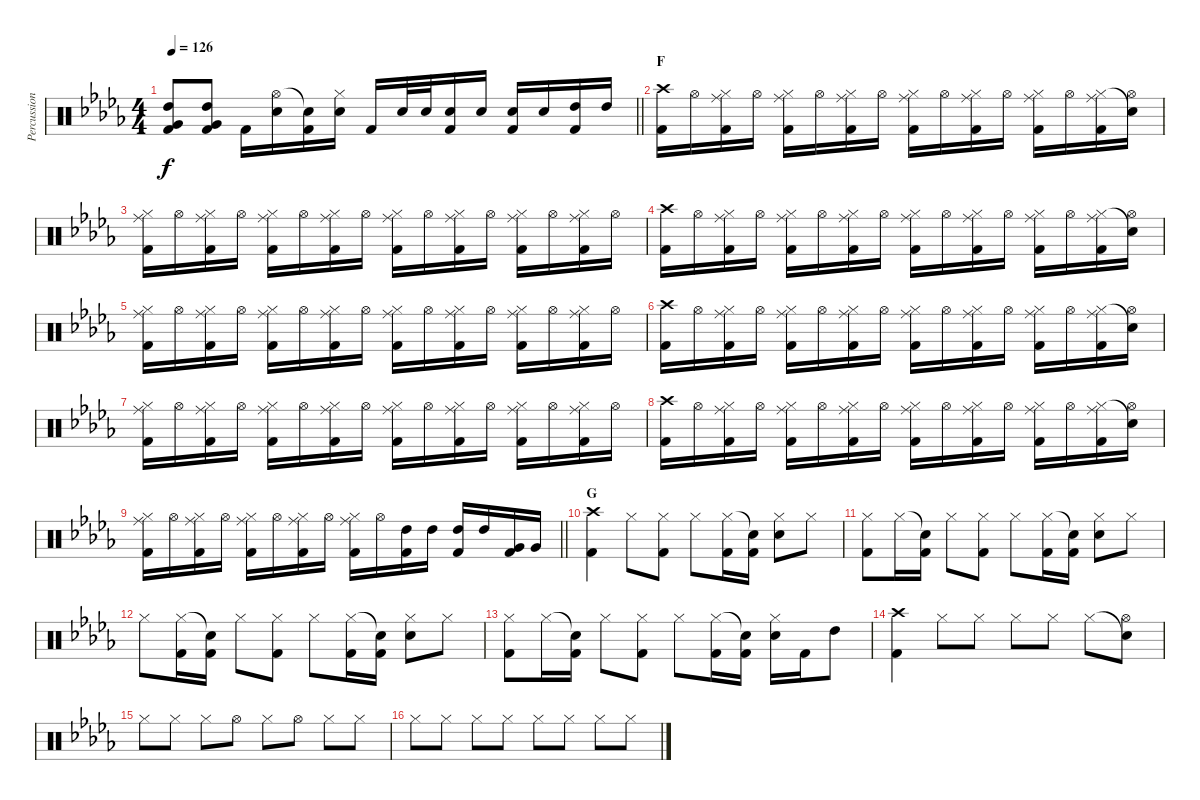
\track ("Percussion" "Percussion") {instrument percussion}
\staff {score}
\articulation defaults
\ts (4 4)
\tempo 126
\clef neutral
\barLineRight lightlight
\ks db
("High Tom (hit)" "Very Low Tom (hit)" "Kick (hit) 2").8{dy f} ("High Tom (hit)" "Very Low Tom (hit)" "Kick (hit) 2").8 "Kick (hit) 2".16 ("Hi-Hat (open)" "Electric Snare (hit)").16 ("Snare (hit)"{t} "Kick (hit) 2").16 ("Hi-Hat (closed)" "Electric Snare (hit)").16 "Kick (hit) 2".16 "Electric Snare (hit)".32 "Electric Snare (hit)".32 ("Electric Snare (hit)" "Kick (hit) 2").16 "Electric Snare (hit)".16 ("Electric Snare (hit)" "Kick (hit) 2").16 "Electric Snare (hit)".16 ("High Tom (hit)" "Kick (hit) 2").16 "High Tom (hit)".16 |
\section ("" "F")
("Crash high (hit)" "Kick (hit) 2").16 "Hi-Hat (open)".16 ("Hi-Hat (closed)" "Ride (middle)" "Kick (hit) 2").16 "Hi-Hat (open)".16 ("Hi-Hat (closed)" "Kick (hit) 2" "Ride (middle)").16 "Hi-Hat (open)".16 ("Hi-Hat (closed)" "Kick (hit) 2" "Ride (middle)").16 "Hi-Hat (open)".16 ("Hi-Hat (closed)" "Ride (middle)" "Kick (hit) 2").16 "Hi-Hat (open)".16 ("Hi-Hat (closed)" "Ride (middle)" "Kick (hit) 2").16 "Hi-Hat (open)".16 ("Hi-Hat (closed)" "Ride (middle)" "Kick (hit) 2").16 "Hi-Hat (open)".16 ("Hi-Hat (closed)" "Ride (middle)" "Kick (hit) 2").16 ("Snare (hit)"{t} "Hi-Hat (open)").16 |
("Hi-Hat (closed)" "Ride (middle)" "Kick (hit) 2").16 "Hi-Hat (open)".16 ("Hi-Hat (closed)" "Ride (middle)" "Kick (hit) 2").16 "Hi-Hat (open)".16 ("Hi-Hat (closed)" "Kick (hit) 2" "Ride (middle)").16 "Hi-Hat (open)".16 ("Hi-Hat (closed)" "Kick (hit) 2" "Ride (middle)").16 "Hi-Hat (open)".16 ("Hi-Hat (closed)" "Ride (middle)" "Kick (hit) 2").16 "Hi-Hat (open)".16 ("Hi-Hat (closed)" "Ride (middle)" "Kick (hit) 2").16 "Hi-Hat (open)".16 ("Hi-Hat (closed)" "Ride (middle)" "Kick (hit) 2").16 "Hi-Hat (open)".16 ("Hi-Hat (closed)" "Ride (middle)" "Kick (hit) 2").16 "Hi-Hat (open)".16 |
("Crash high (hit)" "Kick (hit) 2").16 "Hi-Hat (open)".16 ("Hi-Hat (closed)" "Ride (middle)" "Kick (hit) 2").16 "Hi-Hat (open)".16 ("Hi-Hat (closed)" "Kick (hit) 2" "Ride (middle)").16 "Hi-Hat (open)".16 ("Hi-Hat (closed)" "Kick (hit) 2" "Ride (middle)").16 "Hi-Hat (open)".16 ("Hi-Hat (closed)" "Ride (middle)" "Kick (hit) 2").16 "Hi-Hat (open)".16 ("Hi-Hat (closed)" "Ride (middle)" "Kick (hit) 2").16 "Hi-Hat (open)".16 ("Hi-Hat (closed)" "Ride (middle)" "Kick (hit) 2").16 "Hi-Hat (open)".16 ("Hi-Hat (closed)" "Ride (middle)" "Kick (hit) 2").16 ("Snare (hit)"{t} "Hi-Hat (open)").16 |
("Hi-Hat (closed)" "Ride (middle)" "Kick (hit) 2").16 "Hi-Hat (open)".16 ("Hi-Hat (closed)" "Ride (middle)" "Kick (hit) 2").16 "Hi-Hat (open)".16 ("Hi-Hat (closed)" "Kick (hit) 2" "Ride (middle)").16 "Hi-Hat (open)".16 ("Hi-Hat (closed)" "Kick (hit) 2" "Ride (middle)").16 "Hi-Hat (open)".16 ("Hi-Hat (closed)" "Ride (middle)" "Kick (hit) 2").16 "Hi-Hat (open)".16 ("Hi-Hat (closed)" "Ride (middle)" "Kick (hit) 2").16 "Hi-Hat (open)".16 ("Hi-Hat (closed)" "Ride (middle)" "Kick (hit) 2").16 "Hi-Hat (open)".16 ("Hi-Hat (closed)" "Ride (middle)" "Kick (hit) 2").16 "Hi-Hat (open)".16 |
("Crash high (hit)" "Kick (hit) 2").16 "Hi-Hat (open)".16 ("Hi-Hat (closed)" "Ride (middle)" "Kick (hit) 2").16 "Hi-Hat (open)".16 ("Hi-Hat (closed)" "Kick (hit) 2" "Ride (middle)").16 "Hi-Hat (open)".16 ("Hi-Hat (closed)" "Kick (hit) 2" "Ride (middle)").16 "Hi-Hat (open)".16 ("Hi-Hat (closed)" "Ride (middle)" "Kick (hit) 2").16 "Hi-Hat (open)".16 ("Hi-Hat (closed)" "Ride (middle)" "Kick (hit) 2").16 "Hi-Hat (open)".16 ("Hi-Hat (closed)" "Ride (middle)" "Kick (hit) 2").16 "Hi-Hat (open)".16 ("Hi-Hat (closed)" "Ride (middle)" "Kick (hit) 2").16 ("Snare (hit)"{t} "Hi-Hat (open)").16 |
("Hi-Hat (closed)" "Ride (middle)" "Kick (hit) 2").16 "Hi-Hat (open)".16 ("Hi-Hat (closed)" "Ride (middle)" "Kick (hit) 2").16 "Hi-Hat (open)".16 ("Hi-Hat (closed)" "Kick (hit) 2" "Ride (middle)").16 "Hi-Hat (open)".16 ("Hi-Hat (closed)" "Kick (hit) 2" "Ride (middle)").16 "Hi-Hat (open)".16 ("Hi-Hat (closed)" "Ride (middle)" "Kick (hit) 2").16 "Hi-Hat (open)".16 ("Hi-Hat (closed)" "Ride (middle)" "Kick (hit) 2").16 "Hi-Hat (open)".16 ("Hi-Hat (closed)" "Ride (middle)" "Kick (hit) 2").16 "Hi-Hat (open)".16 ("Hi-Hat (closed)" "Ride (middle)" "Kick (hit) 2").16 "Hi-Hat (open)".16 |
("Crash high (hit)" "Kick (hit) 2").16 "Hi-Hat (open)".16 ("Hi-Hat (closed)" "Ride (middle)" "Kick (hit) 2").16 "Hi-Hat (open)".16 ("Hi-Hat (closed)" "Kick (hit) 2" "Ride (middle)").16 "Hi-Hat (open)".16 ("Hi-Hat (closed)" "Kick (hit) 2" "Ride (middle)").16 "Hi-Hat (open)".16 ("Hi-Hat (closed)" "Ride (middle)" "Kick (hit) 2").16 "Hi-Hat (open)".16 ("Hi-Hat (closed)" "Ride (middle)" "Kick (hit) 2").16 "Hi-Hat (open)".16 ("Hi-Hat (closed)" "Ride (middle)" "Kick (hit) 2").16 "Hi-Hat (open)".16 ("Hi-Hat (closed)" "Ride (middle)" "Kick (hit) 2").16 ("Snare (hit)"{t} "Hi-Hat (open)").16 |
\barLineRight lightlight
("Hi-Hat (closed)" "Ride (middle)" "Kick (hit) 2").16 "Hi-Hat (open)".16 ("Hi-Hat (closed)" "Ride (middle)" "Kick (hit) 2").16 "Hi-Hat (open)".16 ("Hi-Hat (closed)" "Kick (hit) 2" "Ride (middle)").16 "Hi-Hat (open)".16 ("Hi-Hat (closed)" "Kick (hit) 2" "Ride (middle)").16 "Hi-Hat (open)".16 ("Hi-Hat (closed)" "Ride (middle)" "Kick (hit) 2").16 "Hi-Hat (open)".16 ("High Tom (hit)" "Kick (hit) 2").16 "High Tom (hit)".16 ("High Tom (hit)" "Kick (hit) 2").16 "High Tom (hit)".16 ("Very Low Tom (hit)" "Kick (hit) 2").16 "Very Low Tom (hit)".16 |
\section ("" "G")
("Crash high (hit)" "Kick (hit) 2").4 "Hi-Hat (closed)".8 ("Hi-Hat (closed)" "Kick (hit) 2").8 "Hi-Hat (closed)".8 ("Hi-Hat (closed)" "Kick (hit) 2").16 ("Snare (hit)"{t} "Kick (hit) 2").16 ("Hi-Hat (closed)" "Electric Snare (hit)").8 "Hi-Hat (closed)".8 |
("Hi-Hat (closed)" "Kick (hit) 2").8 "Hi-Hat (closed)".16 ("Snare (hit)"{t} "Kick (hit) 2").16 "Hi-Hat (closed)".8 ("Hi-Hat (closed)" "Kick (hit) 2").8 "Hi-Hat (closed)".8 ("Hi-Hat (closed)" "Kick (hit) 2").16 ("Snare (hit)"{t} "Kick (hit) 2").16 ("Hi-Hat (closed)" "Electric Snare (hit)").8 "Hi-Hat (closed)".8 |
"Hi-Hat (closed)".8 ("Hi-Hat (closed)" "Kick (hit) 2").16 ("Snare (hit)"{t} "Kick (hit) 2").16 "Hi-Hat (closed)".8 ("Hi-Hat (closed)" "Kick (hit) 2").8 "Hi-Hat (closed)".8 ("Hi-Hat (closed)" "Kick (hit) 2").16 ("Snare (hit)"{t} "Kick (hit) 2").16 ("Hi-Hat (closed)" "Electric Snare (hit)").8 "Hi-Hat (closed)".8 |
("Hi-Hat (closed)" "Kick (hit) 2").8 "Hi-Hat (closed)".16 ("Snare (hit)"{t} "Kick (hit) 2").16 "Hi-Hat (closed)".8 ("Hi-Hat (closed)" "Kick (hit) 2").8 "Hi-Hat (closed)".8 ("Hi-Hat (closed)" "Kick (hit) 2").16 ("Snare (hit)"{t} "Kick (hit) 2").16 ("Hi-Hat (closed)" "Electric Snare (hit)").16 "Kick (hit) 2".16 "High Tom (hit)".8 |
("Crash high (hit)" "Kick (hit) 2").4 "Hi-Hat (closed)".8 "Hi-Hat (closed)".8 "Hi-Hat (closed)".8 "Hi-Hat (closed)".8 "Hi-Hat (closed)".8 ("Snare (hit)"{t} "Hi-Hat (open)").8 |
"Hi-Hat (closed)".8 "Hi-Hat (closed)".8 "Hi-Hat (closed)".8 "Hi-Hat (open)".8 "Hi-Hat (closed)".8 "Hi-Hat (open)".8 "Hi-Hat (closed)".8 "Hi-Hat (closed)".8 |
"Hi-Hat (closed)".8 "Hi-Hat (closed)".8 "Hi-Hat (closed)".8 "Hi-Hat (closed)".8 "Hi-Hat (closed)".8 "Hi-Hat (closed)".8 "Hi-Hat (closed)".8 "Hi-Hat (closed)".8
